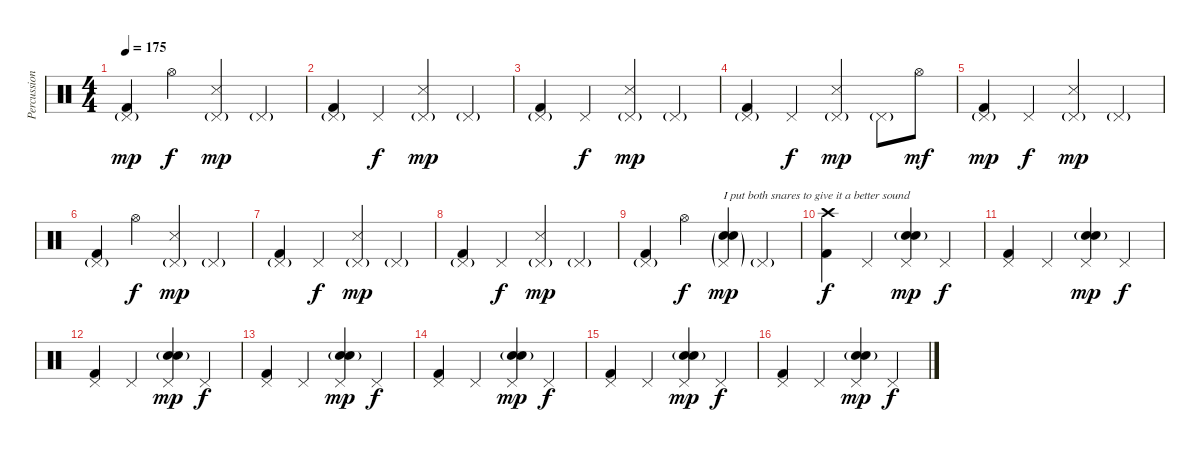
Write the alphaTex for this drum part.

\track ("Percussion" "Percussion") {instrument percussion}
\staff {score}
\articulation defaults
\ts (4 4)
\tempo 175
\clef neutral
\ks c
("Pedal Hi-Hat (hit)"{g} "Kick (hit) 2").4{dy mp} "Hi-Hat (open)".4{dy f} ("Pedal Hi-Hat (hit)"{g} "Snare (side stick) 3").4{dy mp} "Pedal Hi-Hat (hit)"{g}.4 |
("Pedal Hi-Hat (hit)"{g} "Kick (hit) 2").4 "Pedal Hi-Hat (hit)".4{dy f} ("Pedal Hi-Hat (hit)"{g} "Snare (side stick) 3").4{dy mp} "Pedal Hi-Hat (hit)"{g}.4 |
("Pedal Hi-Hat (hit)"{g} "Kick (hit) 2").4 "Pedal Hi-Hat (hit)".4{dy f} ("Pedal Hi-Hat (hit)"{g} "Snare (side stick) 3").4{dy mp} "Pedal Hi-Hat (hit)"{g}.4 |
("Pedal Hi-Hat (hit)"{g} "Kick (hit) 2").4 "Pedal Hi-Hat (hit)".4{dy f} ("Pedal Hi-Hat (hit)"{g} "Snare (side stick) 3").4{dy mp} "Pedal Hi-Hat (hit)"{g}.8 "Hi-Hat (open)".8{dy mf} |
("Pedal Hi-Hat (hit)"{g} "Kick (hit) 2").4{dy mp} "Pedal Hi-Hat (hit)".4{dy f} ("Pedal Hi-Hat (hit)"{g} "Snare (side stick) 3").4{dy mp} "Pedal Hi-Hat (hit)"{g}.4 |
("Pedal Hi-Hat (hit)"{g} "Kick (hit) 2").4 "Hi-Hat (open)".4{dy f} ("Pedal Hi-Hat (hit)"{g} "Snare (side stick) 3").4{dy mp} "Pedal Hi-Hat (hit)"{g}.4 |
("Pedal Hi-Hat (hit)"{g} "Kick (hit) 2").4 "Pedal Hi-Hat (hit)".4{dy f} ("Pedal Hi-Hat (hit)"{g} "Snare (side stick) 3").4{dy mp} "Pedal Hi-Hat (hit)"{g}.4 |
("Pedal Hi-Hat (hit)"{g} "Kick (hit) 2").4 "Pedal Hi-Hat (hit)".4{dy f} ("Pedal Hi-Hat (hit)"{g} "Snare (side stick) 3").4{dy mp} "Pedal Hi-Hat (hit)"{g}.4 |
("Pedal Hi-Hat (hit)"{g} "Kick (hit) 2").4 "Hi-Hat (open)".4{dy f} ("Pedal Hi-Hat (hit)"{g} "Electric Snare (hit)" "Snare (hit) 2"{g}).4{txt "I put both snares to give it a better sound" dy mp} "Pedal Hi-Hat (hit)"{g}.4 |
("Crash high (hit)" "Kick (hit) 2").4{dy f} "Pedal Hi-Hat (hit)".4 ("Pedal Hi-Hat (hit)" "Electric Snare (hit)" "Snare (hit) 2"{g}).4{dy mp} "Pedal Hi-Hat (hit)".4{dy f} |
("Pedal Hi-Hat (hit)" "Kick (hit) 2").4 "Pedal Hi-Hat (hit)".4 ("Pedal Hi-Hat (hit)" "Electric Snare (hit)" "Snare (hit) 2"{g}).4{dy mp} "Pedal Hi-Hat (hit)".4{dy f} |
("Pedal Hi-Hat (hit)" "Kick (hit) 2").4 "Pedal Hi-Hat (hit)".4 ("Pedal Hi-Hat (hit)" "Electric Snare (hit)" "Snare (hit) 2"{g}).4{dy mp} "Pedal Hi-Hat (hit)".4{dy f} |
("Pedal Hi-Hat (hit)" "Kick (hit) 2").4 "Pedal Hi-Hat (hit)".4 ("Pedal Hi-Hat (hit)" "Electric Snare (hit)" "Snare (hit) 2"{g}).4{dy mp} "Pedal Hi-Hat (hit)".4{dy f} |
("Pedal Hi-Hat (hit)" "Kick (hit) 2").4 "Pedal Hi-Hat (hit)".4 ("Pedal Hi-Hat (hit)" "Electric Snare (hit)" "Snare (hit) 2"{g}).4{dy mp} "Pedal Hi-Hat (hit)".4{dy f} |
("Pedal Hi-Hat (hit)" "Kick (hit) 2").4 "Pedal Hi-Hat (hit)".4 ("Pedal Hi-Hat (hit)" "Electric Snare (hit)" "Snare (hit) 2"{g}).4{dy mp} "Pedal Hi-Hat (hit)".4{dy f} |
("Pedal Hi-Hat (hit)" "Kick (hit) 2").4 "Pedal Hi-Hat (hit)".4 ("Pedal Hi-Hat (hit)" "Electric Snare (hit)" "Snare (hit) 2"{g}).4{dy mp} "Pedal Hi-Hat (hit)".4{dy f}
